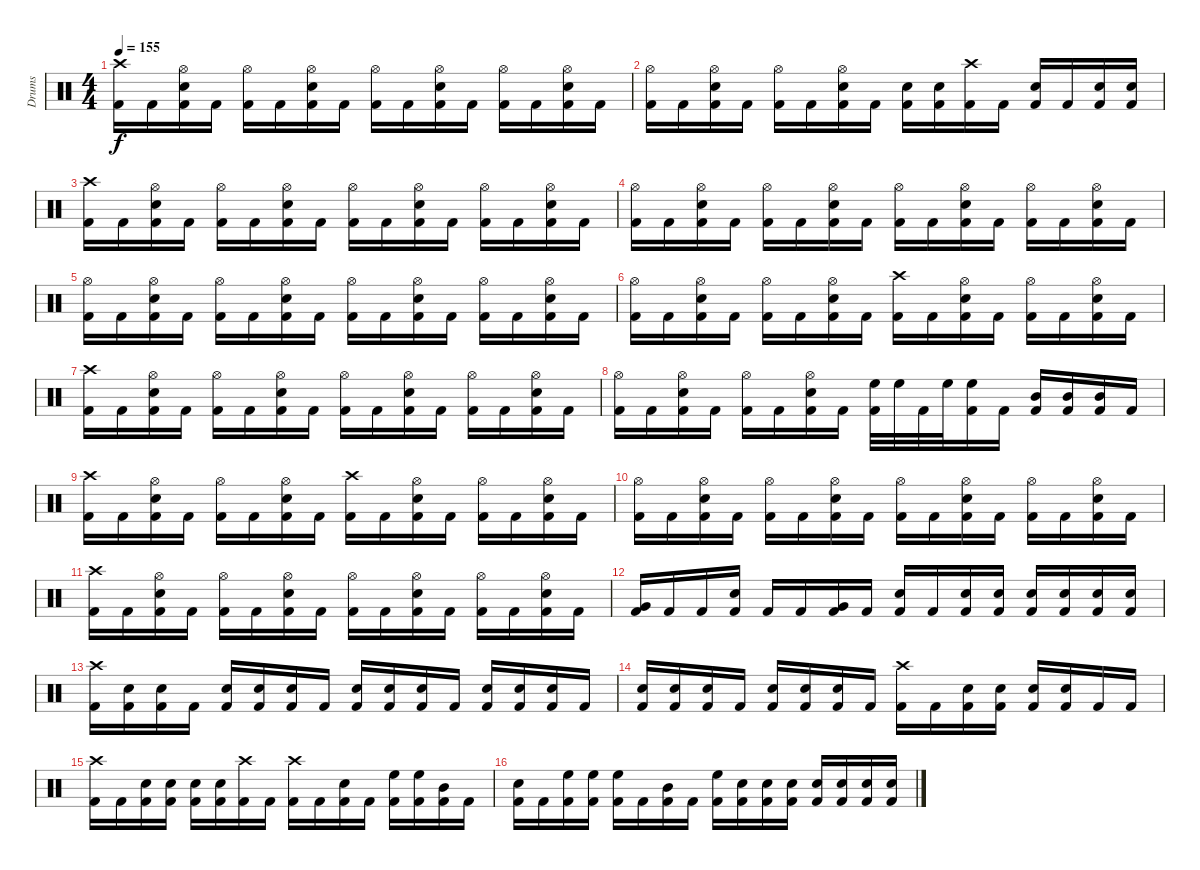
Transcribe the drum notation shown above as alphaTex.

\track ("Drums" "Drums") {instrument percussion}
\staff {score}
\articulation defaults
\ts (4 4)
\tempo 155
\clef neutral
\ks c
("Kick (hit) 2" "Crash high (hit)").16{dy f} "Kick (hit) 2".16 ("Kick (hit) 2" "Hi-Hat (open)" "Snare (hit) 2").16 "Kick (hit) 2".16 ("Kick (hit) 2" "Hi-Hat (open)").16 "Kick (hit) 2".16 ("Kick (hit) 2" "Hi-Hat (open)" "Snare (hit) 2").16 "Kick (hit) 2".16 ("Kick (hit) 2" "Hi-Hat (open)").16 "Kick (hit) 2".16 ("Kick (hit) 2" "Hi-Hat (open)" "Snare (hit) 2").16 "Kick (hit) 2".16 ("Kick (hit) 2" "Hi-Hat (open)").16 "Kick (hit) 2".16 ("Kick (hit) 2" "Hi-Hat (open)" "Snare (hit) 2").16 "Kick (hit) 2".16 |
("Kick (hit) 2" "Hi-Hat (open)").16 "Kick (hit) 2".16 ("Kick (hit) 2" "Hi-Hat (open)" "Snare (hit) 2").16 "Kick (hit) 2".16 ("Kick (hit) 2" "Hi-Hat (open)").16 "Kick (hit) 2".16 ("Kick (hit) 2" "Hi-Hat (open)" "Snare (hit) 2").16 "Kick (hit) 2".16 ("Kick (hit) 2" "Snare (hit) 2").16 ("Kick (hit) 2" "Snare (hit) 2").16 ("Kick (hit) 2" "Crash high (hit)").16 "Kick (hit) 2".16 ("Kick (hit) 2" "Snare (hit) 2").16 "Kick (hit) 2".16 ("Kick (hit) 2" "Snare (hit) 2").16 ("Kick (hit) 2" "Snare (hit) 2").16 |
("Kick (hit) 2" "Crash high (hit)").16 "Kick (hit) 2".16 ("Kick (hit) 2" "Hi-Hat (open)" "Snare (hit) 2").16 "Kick (hit) 2".16 ("Kick (hit) 2" "Hi-Hat (open)").16 "Kick (hit) 2".16 ("Kick (hit) 2" "Hi-Hat (open)" "Snare (hit) 2").16 "Kick (hit) 2".16 ("Kick (hit) 2" "Hi-Hat (open)").16 "Kick (hit) 2".16 ("Kick (hit) 2" "Hi-Hat (open)" "Snare (hit) 2").16 "Kick (hit) 2".16 ("Kick (hit) 2" "Hi-Hat (open)").16 "Kick (hit) 2".16 ("Kick (hit) 2" "Hi-Hat (open)" "Snare (hit) 2").16 "Kick (hit) 2".16 |
("Kick (hit) 2" "Hi-Hat (open)").16 "Kick (hit) 2".16 ("Kick (hit) 2" "Hi-Hat (open)" "Snare (hit) 2").16 "Kick (hit) 2".16 ("Kick (hit) 2" "Hi-Hat (open)").16 "Kick (hit) 2".16 ("Kick (hit) 2" "Hi-Hat (open)" "Snare (hit) 2").16 "Kick (hit) 2".16 ("Kick (hit) 2" "Hi-Hat (open)").16 "Kick (hit) 2".16 ("Kick (hit) 2" "Hi-Hat (open)" "Snare (hit) 2").16 "Kick (hit) 2".16 ("Kick (hit) 2" "Hi-Hat (open)").16 "Kick (hit) 2".16 ("Kick (hit) 2" "Hi-Hat (open)" "Snare (hit) 2").16 "Kick (hit) 2".16 |
("Kick (hit) 2" "Hi-Hat (open)").16 "Kick (hit) 2".16 ("Kick (hit) 2" "Hi-Hat (open)" "Snare (hit) 2").16 "Kick (hit) 2".16 ("Kick (hit) 2" "Hi-Hat (open)").16 "Kick (hit) 2".16 ("Kick (hit) 2" "Hi-Hat (open)" "Snare (hit) 2").16 "Kick (hit) 2".16 ("Kick (hit) 2" "Hi-Hat (open)").16 "Kick (hit) 2".16 ("Kick (hit) 2" "Hi-Hat (open)" "Snare (hit) 2").16 "Kick (hit) 2".16 ("Kick (hit) 2" "Hi-Hat (open)").16 "Kick (hit) 2".16 ("Kick (hit) 2" "Hi-Hat (open)" "Snare (hit) 2").16 "Kick (hit) 2".16 |
("Kick (hit) 2" "Hi-Hat (open)").16 "Kick (hit) 2".16 ("Kick (hit) 2" "Hi-Hat (open)" "Snare (hit) 2").16 "Kick (hit) 2".16 ("Kick (hit) 2" "Hi-Hat (open)").16 "Kick (hit) 2".16 ("Kick (hit) 2" "Hi-Hat (open)" "Snare (hit) 2").16 "Kick (hit) 2".16 ("Kick (hit) 2" "Crash high (hit)").16 "Kick (hit) 2".16 ("Kick (hit) 2" "Hi-Hat (open)" "Snare (hit) 2").16 "Kick (hit) 2".16 ("Kick (hit) 2" "Hi-Hat (open)").16 "Kick (hit) 2".16 ("Kick (hit) 2" "Hi-Hat (open)" "Snare (hit) 2").16 "Kick (hit) 2".16 |
("Kick (hit) 2" "Crash high (hit)").16 "Kick (hit) 2".16 ("Kick (hit) 2" "Hi-Hat (open)" "Snare (hit) 2").16 "Kick (hit) 2".16 ("Kick (hit) 2" "Hi-Hat (open)").16 "Kick (hit) 2".16 ("Kick (hit) 2" "Hi-Hat (open)" "Snare (hit) 2").16 "Kick (hit) 2".16 ("Kick (hit) 2" "Hi-Hat (open)").16 "Kick (hit) 2".16 ("Kick (hit) 2" "Hi-Hat (open)" "Snare (hit) 2").16 "Kick (hit) 2".16 ("Kick (hit) 2" "Hi-Hat (open)").16 "Kick (hit) 2".16 ("Kick (hit) 2" "Hi-Hat (open)" "Snare (hit) 2").16 "Kick (hit) 2".16 |
("Kick (hit) 2" "Hi-Hat (open)").16 "Kick (hit) 2".16 ("Kick (hit) 2" "Hi-Hat (open)" "Snare (hit) 2").16 "Kick (hit) 2".16 ("Kick (hit) 2" "Hi-Hat (open)").16 "Kick (hit) 2".16 ("Kick (hit) 2" "Hi-Hat (open)" "Snare (hit) 2").16 "Kick (hit) 2".16 ("Kick (hit) 2" "High Floor Tom (hit)").32 "High Floor Tom (hit)".32 "Kick (hit) 2".32 "High Floor Tom (hit)".32 ("Kick (hit) 2" "High Floor Tom (hit)").16 "Kick (hit) 2".16 ("Kick (hit) 2" "Mid Tom (hit)").16 ("Kick (hit) 2" "Mid Tom (hit)").16 ("Kick (hit) 2" "Mid Tom (hit)").16 "Kick (hit) 2".16 |
("Kick (hit) 2" "Crash high (hit)").16 "Kick (hit) 2".16 ("Kick (hit) 2" "Hi-Hat (open)" "Snare (hit) 2").16 "Kick (hit) 2".16 ("Kick (hit) 2" "Hi-Hat (open)").16 "Kick (hit) 2".16 ("Kick (hit) 2" "Hi-Hat (open)" "Snare (hit) 2").16 "Kick (hit) 2".16 ("Kick (hit) 2" "Crash high (hit)").16 "Kick (hit) 2".16 ("Kick (hit) 2" "Hi-Hat (open)" "Snare (hit) 2").16 "Kick (hit) 2".16 ("Kick (hit) 2" "Hi-Hat (open)").16 "Kick (hit) 2".16 ("Kick (hit) 2" "Hi-Hat (open)" "Snare (hit) 2").16 "Kick (hit) 2".16 |
("Kick (hit) 2" "Hi-Hat (open)").16 "Kick (hit) 2".16 ("Kick (hit) 2" "Hi-Hat (open)" "Snare (hit) 2").16 "Kick (hit) 2".16 ("Kick (hit) 2" "Hi-Hat (open)").16 "Kick (hit) 2".16 ("Kick (hit) 2" "Hi-Hat (open)" "Snare (hit) 2").16 "Kick (hit) 2".16 ("Kick (hit) 2" "Hi-Hat (open)").16 "Kick (hit) 2".16 ("Kick (hit) 2" "Hi-Hat (open)" "Snare (hit) 2").16 "Kick (hit) 2".16 ("Kick (hit) 2" "Hi-Hat (open)").16 "Kick (hit) 2".16 ("Kick (hit) 2" "Hi-Hat (open)" "Snare (hit) 2").16 "Kick (hit) 2".16 |
("Kick (hit) 2" "Crash high (hit)").16 "Kick (hit) 2".16 ("Kick (hit) 2" "Hi-Hat (open)" "Snare (hit) 2").16 "Kick (hit) 2".16 ("Kick (hit) 2" "Hi-Hat (open)").16 "Kick (hit) 2".16 ("Kick (hit) 2" "Hi-Hat (open)" "Snare (hit) 2").16 "Kick (hit) 2".16 ("Kick (hit) 2" "Hi-Hat (open)").16 "Kick (hit) 2".16 ("Kick (hit) 2" "Hi-Hat (open)" "Snare (hit) 2").16 "Kick (hit) 2".16 ("Kick (hit) 2" "Hi-Hat (open)").16 "Kick (hit) 2".16 ("Kick (hit) 2" "Hi-Hat (open)" "Snare (hit) 2").16 "Kick (hit) 2".16 |
("Kick (hit) 2" "Very Low Tom (hit)").16 "Kick (hit) 2".16 "Kick (hit) 2".16 ("Kick (hit) 2" "Snare (hit) 2").16 "Kick (hit) 2".16 "Kick (hit) 2".16 ("Kick (hit) 2" "Very Low Tom (hit)").16 "Kick (hit) 2".16 ("Kick (hit) 2" "Snare (hit) 2").16 "Kick (hit) 2".16 ("Kick (hit) 2" "Snare (hit) 2").16 ("Kick (hit) 2" "Snare (hit) 2").16 ("Kick (hit) 2" "Snare (hit) 2").16 ("Kick (hit) 2" "Snare (hit) 2").16 ("Kick (hit) 2" "Snare (hit) 2").16 ("Kick (hit) 2" "Snare (hit) 2").16 |
("Kick (hit) 2" "Crash high (hit)").16 ("Kick (hit) 2" "Snare (hit) 2").16 ("Kick (hit) 2" "Snare (hit) 2").16 "Kick (hit) 2".16 ("Kick (hit) 2" "Snare (hit) 2").16 ("Kick (hit) 2" "Snare (hit) 2").16 ("Kick (hit) 2" "Snare (hit) 2").16 "Kick (hit) 2".16 ("Kick (hit) 2" "Snare (hit) 2").16 ("Kick (hit) 2" "Snare (hit) 2").16 ("Kick (hit) 2" "Snare (hit) 2").16 "Kick (hit) 2".16 ("Kick (hit) 2" "Snare (hit) 2").16 ("Kick (hit) 2" "Snare (hit) 2").16 ("Kick (hit) 2" "Snare (hit) 2").16 "Kick (hit) 2".16 |
("Kick (hit) 2" "Snare (hit) 2").16 ("Kick (hit) 2" "Snare (hit) 2").16 ("Kick (hit) 2" "Snare (hit) 2").16 "Kick (hit) 2".16 ("Kick (hit) 2" "Snare (hit) 2").16 ("Kick (hit) 2" "Snare (hit) 2").16 ("Kick (hit) 2" "Snare (hit) 2").16 "Kick (hit) 2".16 ("Kick (hit) 2" "Crash high (hit)").16 "Kick (hit) 2".16 ("Kick (hit) 2" "Snare (hit) 2").16 ("Kick (hit) 2" "Snare (hit) 2").16 ("Kick (hit) 2" "Snare (hit) 2").16 ("Kick (hit) 2" "Snare (hit) 2").16 "Kick (hit) 2".16 "Kick (hit) 2".16 |
("Kick (hit) 2" "Crash high (hit)").16 "Kick (hit) 2".16 ("Kick (hit) 2" "Snare (hit) 2").16 ("Kick (hit) 2" "Snare (hit) 2").16 ("Kick (hit) 2" "Snare (hit) 2").16 ("Kick (hit) 2" "Snare (hit) 2").16 ("Kick (hit) 2" "Crash high (hit)").16 "Kick (hit) 2".16 ("Crash high (hit)" "Kick (hit) 2").16 "Kick (hit) 2".16 ("Snare (hit) 2" "Kick (hit) 2").16 "Kick (hit) 2".16 ("High Floor Tom (hit)" "Kick (hit) 2").16 ("High Floor Tom (hit)" "Kick (hit) 2").16 ("Mid Tom (hit)" "Kick (hit) 2").16 "Kick (hit) 2".16 |
("Kick (hit) 2" "Snare (hit) 2").16 "Kick (hit) 2".16 ("Kick (hit) 2" "High Floor Tom (hit)").16 ("Kick (hit) 2" "High Floor Tom (hit)").16 ("Kick (hit) 2" "High Floor Tom (hit)").16 "Kick (hit) 2".16 ("Kick (hit) 2" "Mid Tom (hit)").16 "Kick (hit) 2".16 ("Kick (hit) 2" "High Floor Tom (hit)").16 ("Kick (hit) 2" "Snare (hit) 2").16 ("Kick (hit) 2" "Snare (hit) 2").16 ("Kick (hit) 2" "Snare (hit) 2").16 ("Kick (hit) 2" "Snare (hit) 2").16 ("Kick (hit) 2" "Snare (hit) 2").16 ("Kick (hit) 2" "Snare (hit) 2").16 ("Kick (hit) 2" "Snare (hit) 2").16
